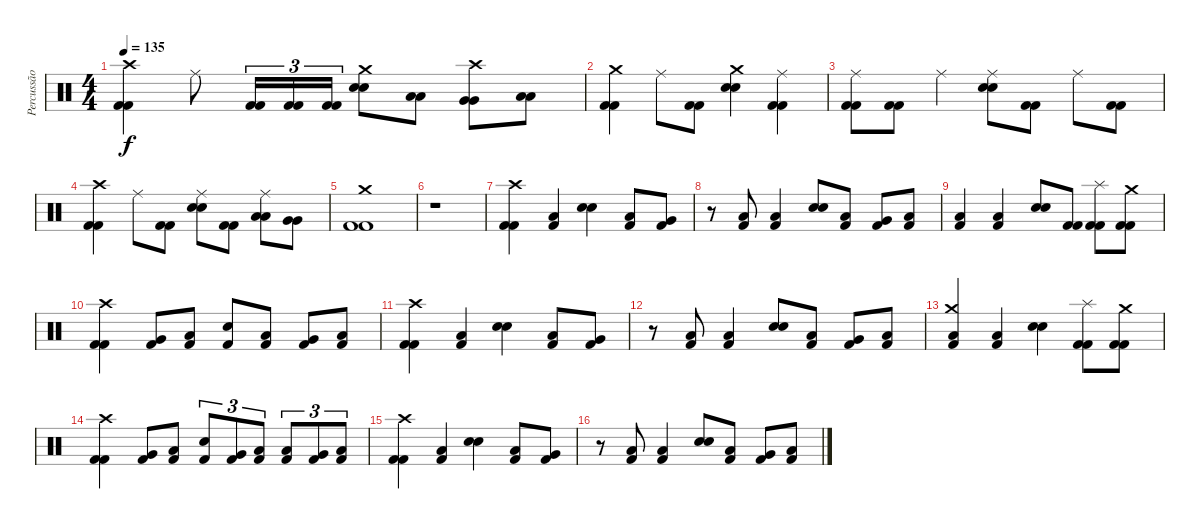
\track ("Percussão" "Percussão") {instrument percussion}
\staff {score}
\articulation defaults
\ts (4 4)
\tempo 135
\clef neutral
\ks c
("Crash high (hit)" "Kick (hit) 2" "Kick (hit) 2").4{dy f} "Ride (middle)".8 ("Kick (hit) 2" "Kick (hit) 2").16{tu (3 2)} ("Kick (hit) 2" "Kick (hit) 2").16{tu (3 2)} ("Kick (hit) 2" "Kick (hit) 2").16{tu (3 2)} ("Crash medium (hit)" "Electric Snare (hit)" "Electric Snare (hit)").8 ("Low Floor Tom (hit)" "Low Floor Tom (hit)").8 ("Crash high (hit)" "Very Low Tom (hit)" "Very Low Tom (hit)").8 ("Low Floor Tom (hit)" "Low Floor Tom (hit)").8 |
("Crash medium (hit)" "Kick (hit) 2" "Kick (hit) 2").4 "Ride (middle)".8 ("Kick (hit) 2" "Kick (hit) 2").8 ("Crash medium (hit)" "Electric Snare (hit)" "Electric Snare (hit)").4 ("Ride (middle)" "Kick (hit) 2" "Kick (hit) 2").4 |
("Ride (middle)" "Kick (hit) 2" "Kick (hit) 2").8 ("Kick (hit) 2" "Kick (hit) 2").8 "Ride (middle)".4 ("Ride (middle)" "Electric Snare (hit)" "Electric Snare (hit)").8 ("Kick (hit) 2" "Kick (hit) 2").8 "Ride (middle)".8 ("Kick (hit) 2" "Kick (hit) 2").8 |
("Crash high (hit)" "Kick (hit) 2" "Kick (hit) 2").4 "Ride (middle)".8 ("Kick (hit) 2" "Kick (hit) 2").8 ("Ride (middle)" "Electric Snare (hit)" "Electric Snare (hit)").8 ("Kick (hit) 2" "Kick (hit) 2").8 ("Ride (middle)" "Low Tom (hit)" "Low Tom (hit)").8 ("Very Low Tom (hit)" "Very Low Tom (hit)").8 |
("Crash medium (hit)" "Kick (hit) 2" "Kick (hit) 2").1 |
r.1 |
("Crash high (hit)" "Kick (hit) 2" "Kick (hit) 2").4 ("Low Floor Tom (hit)" "Kick (hit) 2").4 ("Electric Snare (hit)" "Electric Snare (hit)").4 ("Low Tom (hit)" "Kick (hit) 2").8 ("Very Low Tom (hit)" "Kick (hit) 2").8 |
r.8 ("Low Floor Tom (hit)" "Kick (hit) 2").8 ("Low Floor Tom (hit)" "Kick (hit) 2").4 ("Electric Snare (hit)" "Electric Snare (hit)").8 ("Low Floor Tom (hit)" "Kick (hit) 2").8 ("Very Low Tom (hit)" "Kick (hit) 2").8 ("Low Floor Tom (hit)" "Kick (hit) 2").8 |
("Low Floor Tom (hit)" "Kick (hit) 2").4 ("Low Floor Tom (hit)" "Kick (hit) 2").4 ("Electric Snare (hit)" "Electric Snare (hit)").8 ("Kick (hit) 2" "Kick (hit) 2").8 ("Splash (hit)" "Kick (hit) 2" "Kick (hit) 2").8 ("Crash medium (hit)" "Kick (hit) 2" "Kick (hit) 2").8 |
("Crash high (hit)" "Kick (hit) 2" "Kick (hit) 2").4 ("Very Low Tom (hit)" "Kick (hit) 2").8 ("Low Floor Tom (hit)" "Kick (hit) 2").8 ("Electric Snare (hit)" "Kick (hit) 2").8 ("Low Floor Tom (hit)" "Kick (hit) 2").8 ("Very Low Tom (hit)" "Kick (hit) 2").8 ("Low Floor Tom (hit)" "Kick (hit) 2").8 |
("Crash high (hit)" "Kick (hit) 2" "Kick (hit) 2").4 ("Low Tom (hit)" "Kick (hit) 2").4 ("Electric Snare (hit)" "Electric Snare (hit)").4 ("Low Tom (hit)" "Kick (hit) 2").8 ("Very Low Tom (hit)" "Kick (hit) 2").8 |
r.8 ("Low Floor Tom (hit)" "Kick (hit) 2").8 ("Low Floor Tom (hit)" "Kick (hit) 2").4 ("Electric Snare (hit)" "Electric Snare (hit)").8 ("Low Floor Tom (hit)" "Kick (hit) 2").8 ("Very Low Tom (hit)" "Kick (hit) 2").8 ("Low Floor Tom (hit)" "Kick (hit) 2").8 |
("Crash medium (hit)" "Low Floor Tom (hit)" "Kick (hit) 2").4 ("Low Floor Tom (hit)" "Kick (hit) 2").4 ("Electric Snare (hit)" "Electric Snare (hit)").4 ("Splash (hit)" "Kick (hit) 2" "Kick (hit) 2").8 ("Crash medium (hit)" "Kick (hit) 2" "Kick (hit) 2").8 |
("Crash high (hit)" "Kick (hit) 2" "Kick (hit) 2").4 ("Very Low Tom (hit)" "Kick (hit) 2").8 ("Low Floor Tom (hit)" "Kick (hit) 2").8 ("Electric Snare (hit)" "Kick (hit) 2").8{tu (3 2)} ("Very Low Tom (hit)" "Kick (hit) 2").8{tu (3 2)} ("Low Floor Tom (hit)" "Kick (hit) 2").8{tu (3 2)} ("Low Tom (hit)" "Kick (hit) 2").8{tu (3 2)} ("Very Low Tom (hit)" "Kick (hit) 2").8{tu (3 2)} ("Low Floor Tom (hit)" "Kick (hit) 2").8{tu (3 2)} |
("Crash high (hit)" "Kick (hit) 2" "Kick (hit) 2").4 ("Low Floor Tom (hit)" "Kick (hit) 2").4 ("Electric Snare (hit)" "Electric Snare (hit)").4 ("Low Tom (hit)" "Kick (hit) 2").8 ("Very Low Tom (hit)" "Kick (hit) 2").8 |
r.8 ("Low Floor Tom (hit)" "Kick (hit) 2").8 ("Low Floor Tom (hit)" "Kick (hit) 2").4 ("Electric Snare (hit)" "Electric Snare (hit)").8 ("Low Floor Tom (hit)" "Kick (hit) 2").8 ("Very Low Tom (hit)" "Kick (hit) 2").8 ("Low Floor Tom (hit)" "Kick (hit) 2").8
